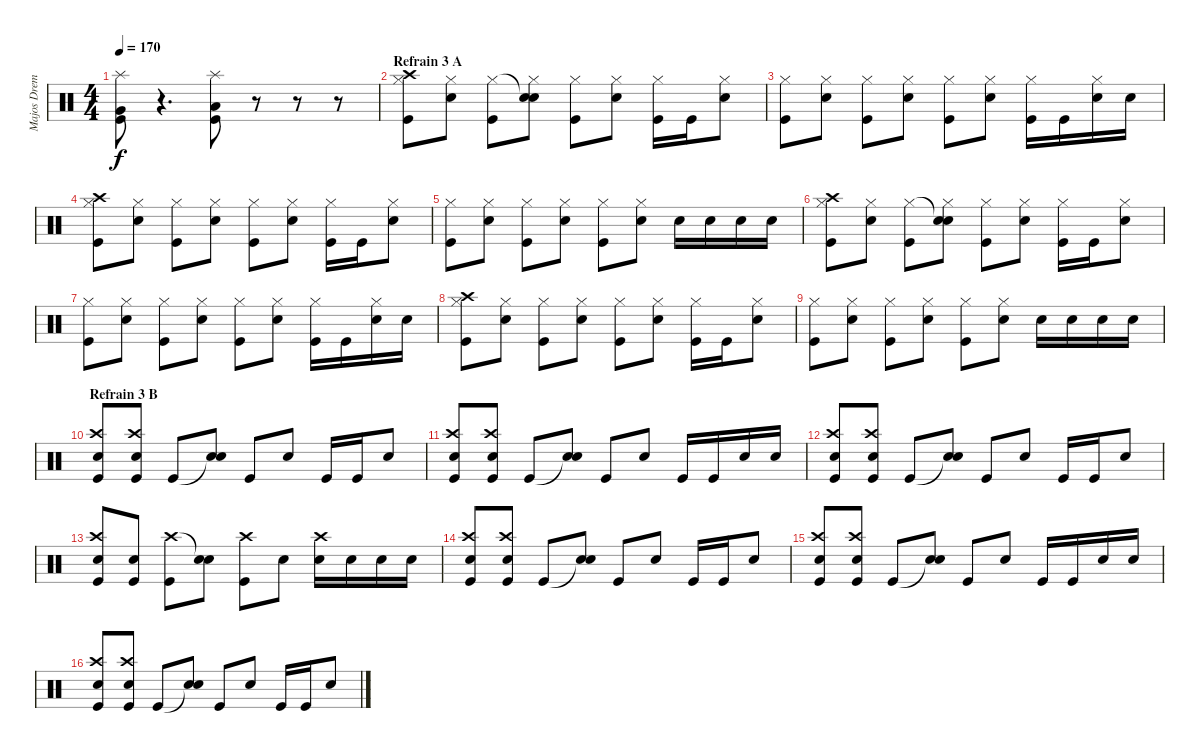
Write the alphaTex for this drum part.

\track ("Majos Dremmelei" "Majos Drem") {instrument percussion}
\staff {score}
\articulation defaults
\ts (4 4)
\tempo 170
\clef neutral
\ks c
("Splash (hit)" "Very Low Tom (hit)" "Kick (hit)").8{dy f} r.4{d} ("Splash (hit)" "Low Tom (hit)" "Kick (hit)").8 r.8 r.8 r.8 |
\section ("" "Refrain 3 A")
("Crash high (hit)" "Hi-Hat (closed)" "Kick (hit)").8 ("Hi-Hat (closed)" "Electric Snare (hit)").8 ("Hi-Hat (closed)" "Kick (hit)").8 ("Snare (hit)"{t} "Hi-Hat (closed)" "Electric Snare (hit)").8 ("Hi-Hat (closed)" "Kick (hit)").8 ("Hi-Hat (closed)" "Electric Snare (hit)").8 ("Hi-Hat (closed)" "Kick (hit)").16 "Kick (hit)".16 ("Hi-Hat (closed)" "Electric Snare (hit)").8 |
("Hi-Hat (closed)" "Kick (hit)").8 ("Hi-Hat (closed)" "Electric Snare (hit)").8 ("Hi-Hat (closed)" "Kick (hit)").8 ("Hi-Hat (closed)" "Electric Snare (hit)").8 ("Hi-Hat (closed)" "Kick (hit)").8 ("Hi-Hat (closed)" "Electric Snare (hit)").8 ("Hi-Hat (closed)" "Kick (hit)").16 "Kick (hit)".16 ("Hi-Hat (closed)" "Electric Snare (hit)").16 "Electric Snare (hit)".16 |
("Crash high (hit)" "Hi-Hat (closed)" "Kick (hit)").8 ("Hi-Hat (closed)" "Electric Snare (hit)").8 ("Hi-Hat (closed)" "Kick (hit)").8 ("Hi-Hat (closed)" "Electric Snare (hit)").8 ("Hi-Hat (closed)" "Kick (hit)").8 ("Hi-Hat (closed)" "Electric Snare (hit)").8 ("Hi-Hat (closed)" "Kick (hit)").16 "Kick (hit)".16 ("Hi-Hat (closed)" "Electric Snare (hit)").8 |
("Hi-Hat (closed)" "Kick (hit)").8 ("Hi-Hat (closed)" "Electric Snare (hit)").8 ("Hi-Hat (closed)" "Kick (hit)").8 ("Hi-Hat (closed)" "Electric Snare (hit)").8 ("Hi-Hat (closed)" "Kick (hit)").8 ("Hi-Hat (closed)" "Electric Snare (hit)").8 "Electric Snare (hit)".16 "Electric Snare (hit)".16 "Electric Snare (hit)".16 "Electric Snare (hit)".16 |
("Crash high (hit)" "Hi-Hat (closed)" "Kick (hit)").8 ("Hi-Hat (closed)" "Electric Snare (hit)").8 ("Hi-Hat (closed)" "Kick (hit)").8 ("Snare (hit)"{t} "Hi-Hat (closed)" "Electric Snare (hit)").8 ("Hi-Hat (closed)" "Kick (hit)").8 ("Hi-Hat (closed)" "Electric Snare (hit)").8 ("Hi-Hat (closed)" "Kick (hit)").16 "Kick (hit)".16 ("Hi-Hat (closed)" "Electric Snare (hit)").8 |
("Hi-Hat (closed)" "Kick (hit)").8 ("Hi-Hat (closed)" "Electric Snare (hit)").8 ("Hi-Hat (closed)" "Kick (hit)").8 ("Hi-Hat (closed)" "Electric Snare (hit)").8 ("Hi-Hat (closed)" "Kick (hit)").8 ("Hi-Hat (closed)" "Electric Snare (hit)").8 ("Hi-Hat (closed)" "Kick (hit)").16 "Kick (hit)".16 ("Hi-Hat (closed)" "Electric Snare (hit)").16 "Electric Snare (hit)".16 |
("Crash high (hit)" "Hi-Hat (closed)" "Kick (hit)").8 ("Hi-Hat (closed)" "Electric Snare (hit)").8 ("Hi-Hat (closed)" "Kick (hit)").8 ("Hi-Hat (closed)" "Electric Snare (hit)").8 ("Hi-Hat (closed)" "Kick (hit)").8 ("Hi-Hat (closed)" "Electric Snare (hit)").8 ("Hi-Hat (closed)" "Kick (hit)").16 "Kick (hit)".16 ("Hi-Hat (closed)" "Electric Snare (hit)").8 |
("Hi-Hat (closed)" "Kick (hit)").8 ("Hi-Hat (closed)" "Electric Snare (hit)").8 ("Hi-Hat (closed)" "Kick (hit)").8 ("Hi-Hat (closed)" "Electric Snare (hit)").8 ("Hi-Hat (closed)" "Kick (hit)").8 ("Hi-Hat (closed)" "Electric Snare (hit)").8 "Electric Snare (hit)".16 "Electric Snare (hit)".16 "Electric Snare (hit)".16 "Electric Snare (hit)".16 |
\section ("" "Refrain 3 B")
("Crash high (hit)" "Electric Snare (hit)" "Kick (hit)").8 ("Crash high (hit)" "Electric Snare (hit)" "Kick (hit)").8 "Kick (hit)".8 ("Snare (hit)"{t} "Electric Snare (hit)").8 "Kick (hit)".8 "Electric Snare (hit)".8 "Kick (hit)".16 "Kick (hit)".16 "Electric Snare (hit)".8 |
("Crash high (hit)" "Electric Snare (hit)" "Kick (hit)").8 ("Crash high (hit)" "Electric Snare (hit)" "Kick (hit)").8 "Kick (hit)".8 ("Snare (hit)"{t} "Electric Snare (hit)").8 "Kick (hit)".8 "Electric Snare (hit)".8 "Kick (hit)".16 "Kick (hit)".16 "Electric Snare (hit)".16 "Electric Snare (hit)".16 |
("Crash high (hit)" "Electric Snare (hit)" "Kick (hit)").8 ("Crash high (hit)" "Electric Snare (hit)" "Kick (hit)").8 "Kick (hit)".8 ("Snare (hit)"{t} "Electric Snare (hit)").8 "Kick (hit)".8 "Electric Snare (hit)".8 "Kick (hit)".16 "Kick (hit)".16 "Electric Snare (hit)".8 |
("Crash high (hit)" "Electric Snare (hit)" "Kick (hit)").8 ("Electric Snare (hit)" "Kick (hit)").8 ("Crash high (hit)" "Kick (hit)").8 ("Snare (hit)"{t} "Electric Snare (hit)").8 ("Crash high (hit)" "Kick (hit)").8 "Electric Snare (hit)".8 ("Crash high (hit)" "Electric Snare (hit)").16 "Electric Snare (hit)".16 "Electric Snare (hit)".16 "Electric Snare (hit)".16 |
("Crash high (hit)" "Electric Snare (hit)" "Kick (hit)").8 ("Crash high (hit)" "Electric Snare (hit)" "Kick (hit)").8 "Kick (hit)".8 ("Snare (hit)"{t} "Electric Snare (hit)").8 "Kick (hit)".8 "Electric Snare (hit)".8 "Kick (hit)".16 "Kick (hit)".16 "Electric Snare (hit)".8 |
("Crash high (hit)" "Electric Snare (hit)" "Kick (hit)").8 ("Crash high (hit)" "Electric Snare (hit)" "Kick (hit)").8 "Kick (hit)".8 ("Snare (hit)"{t} "Electric Snare (hit)").8 "Kick (hit)".8 "Electric Snare (hit)".8 "Kick (hit)".16 "Kick (hit)".16 "Electric Snare (hit)".16 "Electric Snare (hit)".16 |
("Crash high (hit)" "Electric Snare (hit)" "Kick (hit)").8 ("Crash high (hit)" "Electric Snare (hit)" "Kick (hit)").8 "Kick (hit)".8 ("Snare (hit)"{t} "Electric Snare (hit)").8 "Kick (hit)".8 "Electric Snare (hit)".8 "Kick (hit)".16 "Kick (hit)".16 "Electric Snare (hit)".8
